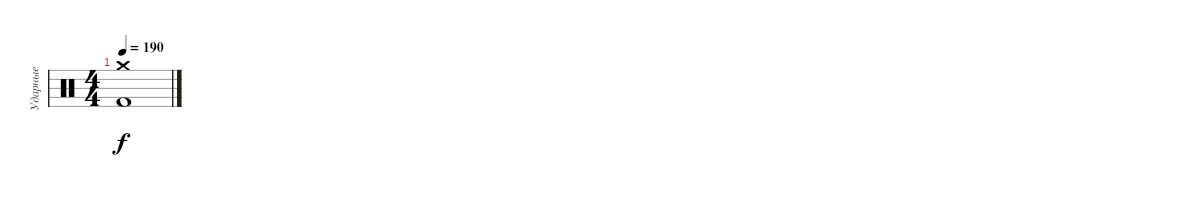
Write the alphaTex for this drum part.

\track ("Ударные" "Ударные") {instrument percussion}
\staff {score}
\articulation defaults
\ts (4 4)
\tempo 190
\clef neutral
\ks c
("Kick (hit) 2" "Crash medium (hit)").1{dy f}
